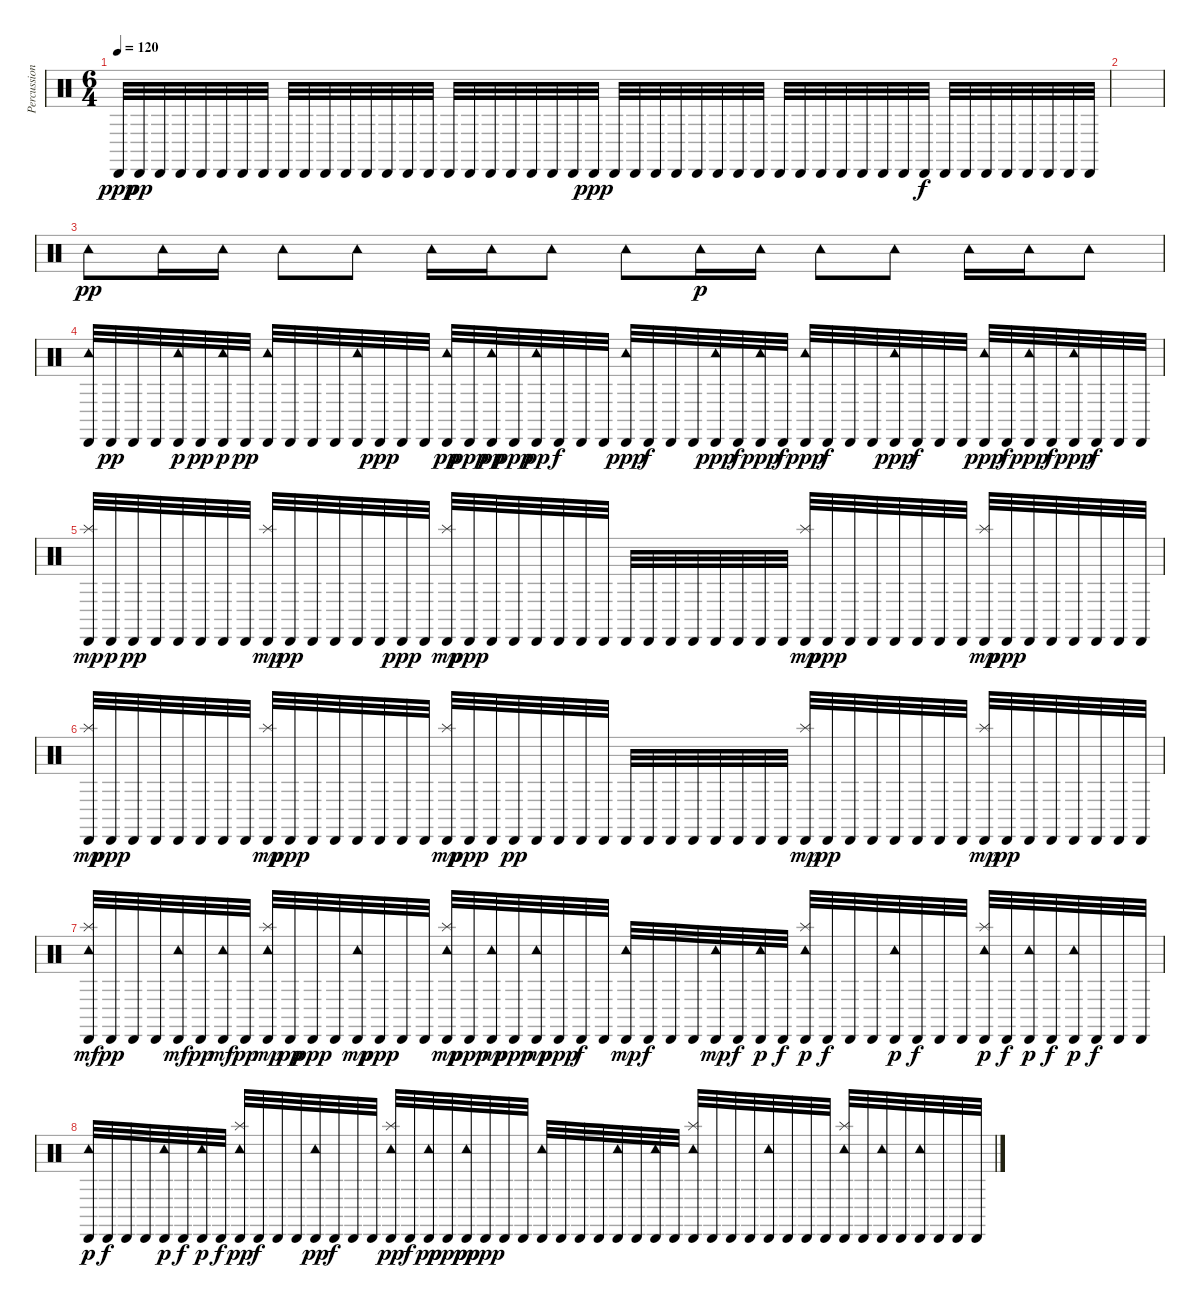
\track ("Percussion" "Percussion") {instrument percussion}
\staff {score}
\articulation defaults
\ts (6 4)
\tempo 120
\clef neutral
\ks c "Cabasa (hit)".32{dy ppp} "Cabasa (hit)".32{dy pp} "Cabasa (hit)".32 "Cabasa (hit)".32 "Cabasa (hit)".32 "Cabasa (hit)".32 "Cabasa (hit)".32 "Cabasa (hit)".32 "Cabasa (hit)".32 "Cabasa (hit)".32 "Cabasa (hit)".32 "Cabasa (hit)".32 "Cabasa (hit)".32 "Cabasa (hit)".32 "Cabasa (hit)".32 "Cabasa (hit)".32 "Cabasa (hit)".32 "Cabasa (hit)".32 "Cabasa (hit)".32 "Cabasa (hit)".32 "Cabasa (hit)".32 "Cabasa (hit)".32 "Cabasa (hit)".32 "Cabasa (hit)".32{dy ppp} "Cabasa (hit)".32 "Cabasa (hit)".32 "Cabasa (hit)".32 "Cabasa (hit)".32 "Cabasa (hit)".32 "Cabasa (hit)".32 "Cabasa (hit)".32 "Cabasa (hit)".32 "Cabasa (hit)".32 "Cabasa (hit)".32 "Cabasa (hit)".32 "Cabasa (hit)".32 "Cabasa (hit)".32 "Cabasa (hit)".32 "Cabasa (hit)".32 "Cabasa (hit)".32{dy f} "Cabasa (hit)".32 "Cabasa (hit)".32 "Cabasa (hit)".32 "Cabasa (hit)".32 "Cabasa (hit)".32 "Cabasa (hit)".32 "Cabasa (hit)".32 "Cabasa (hit)".32
|
|
"Tambourine (hit)".8{dy pp} "Tambourine (hit)".16 "Tambourine (hit)".16 "Tambourine (hit)".8 "Tambourine (hit)".8 "Tambourine (hit)".16 "Tambourine (hit)".16 "Tambourine (hit)".8 "Tambourine (hit)".8 "Tambourine (hit)".16{dy p} "Tambourine (hit)".16 "Tambourine (hit)".8 "Tambourine (hit)".8 "Tambourine (hit)".16 "Tambourine (hit)".16 "Tambourine (hit)".8 |
("Cabasa (hit)" "Tambourine (hit)").32 "Cabasa (hit)".32{dy pp} "Cabasa (hit)".32 "Cabasa (hit)".32 ("Cabasa (hit)" "Tambourine (hit)").32{dy p} "Cabasa (hit)".32{dy pp} ("Cabasa (hit)" "Tambourine (hit)").32{dy p} "Cabasa (hit)".32{dy pp} ("Cabasa (hit)" "Tambourine (hit)").32 "Cabasa (hit)".32 "Cabasa (hit)".32 "Cabasa (hit)".32 ("Cabasa (hit)" "Tambourine (hit)").32 "Cabasa (hit)".32{dy ppp} "Cabasa (hit)".32 "Cabasa (hit)".32 ("Cabasa (hit)" "Tambourine (hit)").32{dy pp} "Cabasa (hit)".32{dy ppp} ("Cabasa (hit)" "Tambourine (hit)").32{dy pp} "Cabasa (hit)".32{dy ppp} ("Cabasa (hit)" "Tambourine (hit)").32{dy pp} "Cabasa (hit)".32{dy f} "Cabasa (hit)".32 "Cabasa (hit)".32 ("Cabasa (hit)" "Tambourine (hit)").32{dy ppp} "Cabasa (hit)".32{dy f} "Cabasa (hit)".32 "Cabasa (hit)".32 ("Cabasa (hit)" "Tambourine (hit)").32{dy ppp} "Cabasa (hit)".32{dy f} ("Cabasa (hit)" "Tambourine (hit)").32{dy ppp} "Cabasa (hit)".32{dy f} ("Cabasa (hit)" "Tambourine (hit)").32{dy ppp} "Cabasa (hit)".32{dy f} "Cabasa (hit)".32 "Cabasa (hit)".32 ("Cabasa (hit)" "Tambourine (hit)").32{dy ppp} "Cabasa (hit)".32{dy f} "Cabasa (hit)".32 "Cabasa (hit)".32 ("Cabasa (hit)" "Tambourine (hit)").32{dy ppp} "Cabasa (hit)".32{dy f} ("Cabasa (hit)" "Tambourine (hit)").32{dy ppp} "Cabasa (hit)".32{dy f} ("Cabasa (hit)" "Tambourine (hit)").32{dy ppp} "Cabasa (hit)".32{dy f} "Cabasa (hit)".32 "Cabasa (hit)".32 |
("Cabasa (hit)" "Splash (hit)").32{dy mp} "Cabasa (hit)".32{dy p} "Cabasa (hit)".32{dy pp} "Cabasa (hit)".32 "Cabasa (hit)".32 "Cabasa (hit)".32 "Cabasa (hit)".32 "Cabasa (hit)".32 ("Cabasa (hit)" "Splash (hit)").32{dy mp} "Cabasa (hit)".32{dy pp} "Cabasa (hit)".32 "Cabasa (hit)".32 "Cabasa (hit)".32 "Cabasa (hit)".32 "Cabasa (hit)".32{dy ppp} "Cabasa (hit)".32 ("Cabasa (hit)" "Splash (hit)").32{dy mp} "Cabasa (hit)".32{dy ppp} "Cabasa (hit)".32 "Cabasa (hit)".32 "Cabasa (hit)".32 "Cabasa (hit)".32 "Cabasa (hit)".32 "Cabasa (hit)".32 "Cabasa (hit)".32 "Cabasa (hit)".32 "Cabasa (hit)".32 "Cabasa (hit)".32 "Cabasa (hit)".32 "Cabasa (hit)".32 "Cabasa (hit)".32 "Cabasa (hit)".32 ("Cabasa (hit)" "Splash (hit)").32{dy mp} "Cabasa (hit)".32{dy ppp} "Cabasa (hit)".32 "Cabasa (hit)".32 "Cabasa (hit)".32 "Cabasa (hit)".32 "Cabasa (hit)".32 "Cabasa (hit)".32 ("Cabasa (hit)" "Splash (hit)").32{dy mp} "Cabasa (hit)".32{dy ppp} "Cabasa (hit)".32 "Cabasa (hit)".32 "Cabasa (hit)".32 "Cabasa (hit)".32 "Cabasa (hit)".32 "Cabasa (hit)".32 |
("Cabasa (hit)" "Splash (hit)").32{dy mp} "Cabasa (hit)".32{dy ppp} "Cabasa (hit)".32 "Cabasa (hit)".32 "Cabasa (hit)".32 "Cabasa (hit)".32 "Cabasa (hit)".32 "Cabasa (hit)".32 ("Cabasa (hit)" "Splash (hit)").32{dy mp} "Cabasa (hit)".32{dy ppp} "Cabasa (hit)".32 "Cabasa (hit)".32 "Cabasa (hit)".32 "Cabasa (hit)".32 "Cabasa (hit)".32 "Cabasa (hit)".32 ("Cabasa (hit)" "Splash (hit)").32{dy mp} "Cabasa (hit)".32{dy ppp} "Cabasa (hit)".32 "Cabasa (hit)".32{dy pp} "Cabasa (hit)".32 "Cabasa (hit)".32 "Cabasa (hit)".32 "Cabasa (hit)".32 "Cabasa (hit)".32 "Cabasa (hit)".32 "Cabasa (hit)".32 "Cabasa (hit)".32 "Cabasa (hit)".32 "Cabasa (hit)".32 "Cabasa (hit)".32 "Cabasa (hit)".32 ("Cabasa (hit)" "Splash (hit)").32{dy mp} "Cabasa (hit)".32{dy pp} "Cabasa (hit)".32 "Cabasa (hit)".32 "Cabasa (hit)".32 "Cabasa (hit)".32 "Cabasa (hit)".32 "Cabasa (hit)".32 ("Cabasa (hit)" "Splash (hit)").32{dy mp} "Cabasa (hit)".32{dy pp} "Cabasa (hit)".32 "Cabasa (hit)".32 "Cabasa (hit)".32 "Cabasa (hit)".32 "Cabasa (hit)".32 "Cabasa (hit)".32 |
("Cabasa (hit)" "Splash (hit)" "Tambourine (hit)").32{dy mf} "Cabasa (hit)".32{dy pp} "Cabasa (hit)".32 "Cabasa (hit)".32 ("Cabasa (hit)" "Tambourine (hit)").32{dy mf} "Cabasa (hit)".32{dy pp} ("Cabasa (hit)" "Tambourine (hit)").32{dy mf} "Cabasa (hit)".32{dy pp} ("Cabasa (hit)" "Splash (hit)" "Tambourine (hit)").32{dy mp} "Cabasa (hit)".32{dy pp} "Cabasa (hit)".32{dy ppp} "Cabasa (hit)".32 ("Cabasa (hit)" "Tambourine (hit)").32{dy mp} "Cabasa (hit)".32{dy ppp} "Cabasa (hit)".32 "Cabasa (hit)".32 ("Cabasa (hit)" "Splash (hit)" "Tambourine (hit)").32{dy mp} "Cabasa (hit)".32{dy ppp} ("Cabasa (hit)" "Tambourine (hit)").32{dy mp} "Cabasa (hit)".32{dy ppp} ("Cabasa (hit)" "Tambourine (hit)").32{dy mp} "Cabasa (hit)".32{dy ppp} "Cabasa (hit)".32{dy f} "Cabasa (hit)".32 ("Cabasa (hit)" "Tambourine (hit)").32{dy mp} "Cabasa (hit)".32{dy f} "Cabasa (hit)".32 "Cabasa (hit)".32 ("Cabasa (hit)" "Tambourine (hit)").32{dy mp} "Cabasa (hit)".32{dy f} ("Cabasa (hit)" "Tambourine (hit)").32{dy p} "Cabasa (hit)".32{dy f} ("Cabasa (hit)" "Splash (hit)" "Tambourine (hit)").32{dy p} "Cabasa (hit)".32{dy f} "Cabasa (hit)".32 "Cabasa (hit)".32 ("Cabasa (hit)" "Tambourine (hit)").32{dy p} "Cabasa (hit)".32{dy f} "Cabasa (hit)".32 "Cabasa (hit)".32 ("Cabasa (hit)" "Splash (hit)" "Tambourine (hit)").32{dy p} "Cabasa (hit)".32{dy f} ("Cabasa (hit)" "Tambourine (hit)").32{dy p} "Cabasa (hit)".32{dy f} ("Cabasa (hit)" "Tambourine (hit)").32{dy p} "Cabasa (hit)".32{dy f} "Cabasa (hit)".32 "Cabasa (hit)".32 |
("Cabasa (hit)" "Tambourine (hit)").32{dy p} "Cabasa (hit)".32{dy f} "Cabasa (hit)".32 "Cabasa (hit)".32 ("Cabasa (hit)" "Tambourine (hit)").32{dy p} "Cabasa (hit)".32{dy f} ("Cabasa (hit)" "Tambourine (hit)").32{dy p} "Cabasa (hit)".32{dy f} ("Cabasa (hit)" "Splash (hit)" "Tambourine (hit)").32{dy pp} "Cabasa (hit)".32{dy f} "Cabasa (hit)".32 "Cabasa (hit)".32 ("Cabasa (hit)" "Tambourine (hit)").32{dy pp} "Cabasa (hit)".32{dy f} "Cabasa (hit)".32 "Cabasa (hit)".32 ("Cabasa (hit)" "Splash (hit)" "Tambourine (hit)").32{dy pp} "Cabasa (hit)".32{dy f} ("Cabasa (hit)" "Tambourine (hit)").32{dy pp} "Cabasa (hit)".32{dy ppp} ("Cabasa (hit)" "Tambourine (hit)").32{dy pp} "Cabasa (hit)".32{dy ppp} "Cabasa (hit)".32 "Cabasa (hit)".32 ("Cabasa (hit)" "Tambourine (hit)").32 "Cabasa (hit)".32 "Cabasa (hit)".32 "Cabasa (hit)".32 ("Cabasa (hit)" "Tambourine (hit)").32 "Cabasa (hit)".32 ("Cabasa (hit)" "Tambourine (hit)").32 "Cabasa (hit)".32 ("Cabasa (hit)" "Splash (hit)" "Tambourine (hit)").32 "Cabasa (hit)".32 "Cabasa (hit)".32 "Cabasa (hit)".32 ("Cabasa (hit)" "Tambourine (hit)").32 "Cabasa (hit)".32 "Cabasa (hit)".32 "Cabasa (hit)".32 ("Cabasa (hit)" "Splash (hit)" "Tambourine (hit)").32 "Cabasa (hit)".32 ("Cabasa (hit)" "Tambourine (hit)").32 "Cabasa (hit)".32 ("Cabasa (hit)" "Tambourine (hit)").32 "Cabasa (hit)".32 "Cabasa (hit)".32 "Cabasa (hit)".32
